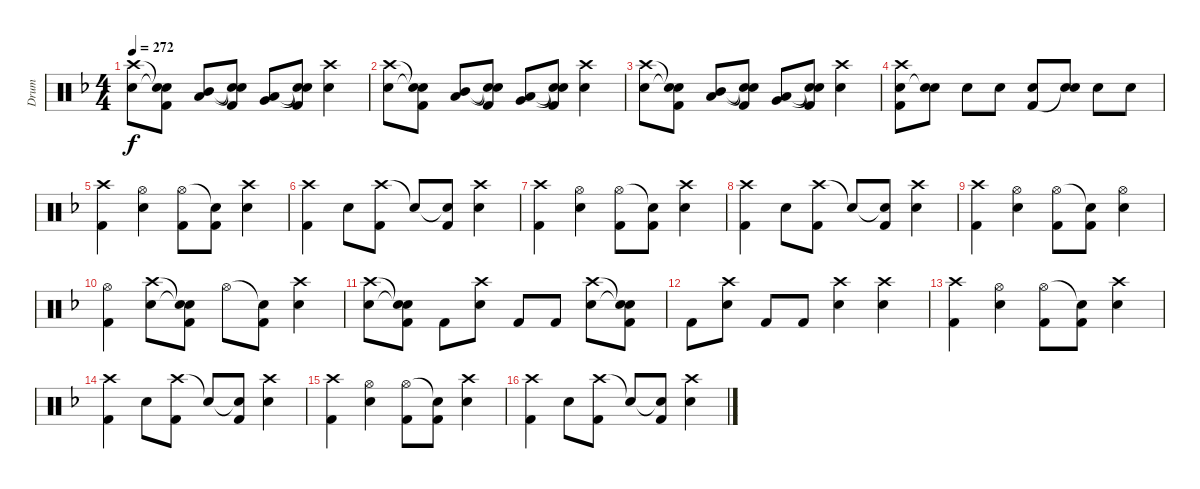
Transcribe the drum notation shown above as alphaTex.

\track ("Drum" "Drum") {instrument percussion}
\staff {score}
\articulation defaults
\ts (4 4)
\tempo 272
\clef neutral
\ks f
("Crash high (hit)" "Electric Snare (hit)").8{dy f} ("Snare (hit)"{t} "Snare (hit)"{t} "Kick (hit) 2").8 ("Mid Tom (hit)" "Low Tom (hit)").8 ("Snare (hit)"{t} "Snare (hit)"{t} "Kick (hit) 2").8 ("Low Tom (hit)" "Very Low Tom (hit)").8 ("Snare (hit)"{t} "Snare (hit)"{t} "Kick (hit) 2").8 ("Crash high (hit)" "Electric Snare (hit)").4 |
("Crash high (hit)" "Electric Snare (hit)").8 ("Snare (hit)"{t} "Snare (hit)"{t} "Kick (hit) 2").8 ("Mid Tom (hit)" "Low Tom (hit)").8 ("Snare (hit)"{t} "Snare (hit)"{t} "Kick (hit) 2").8 ("Low Tom (hit)" "Very Low Tom (hit)").8 ("Snare (hit)"{t} "Snare (hit)"{t} "Kick (hit) 2").8 ("Crash high (hit)" "Electric Snare (hit)").4 |
("Crash high (hit)" "Electric Snare (hit)").8 ("Snare (hit)"{t} "Snare (hit)"{t} "Kick (hit) 2").8 ("Mid Tom (hit)" "Low Tom (hit)").8 ("Snare (hit)"{t} "Snare (hit)"{t} "Kick (hit) 2").8 ("Low Tom (hit)" "Very Low Tom (hit)").8 ("Snare (hit)"{t} "Snare (hit)"{t} "Kick (hit) 2").8 ("Crash high (hit)" "Electric Snare (hit)").4 |
("Crash high (hit)" "Electric Snare (hit)" "Kick (hit) 2").8 ("Electric Snare (hit)" "Snare (hit)"{t}).8 "Electric Snare (hit)".8 "Electric Snare (hit)".8 ("Electric Snare (hit)" "Kick (hit) 2").8 ("Electric Snare (hit)" "Snare (hit)"{t}).8 "Electric Snare (hit)".8 "Electric Snare (hit)".8 |
("Crash high (hit)" "Kick (hit) 2").4 ("Hi-Hat (open)" "Electric Snare (hit)").4 ("Hi-Hat (open)" "Kick (hit) 2").8 ("Snare (hit)"{t} "Kick (hit) 2").8 ("Crash high (hit)" "Electric Snare (hit)").4 |
("Crash high (hit)" "Kick (hit) 2").4 "Electric Snare (hit)".8 ("Crash high (hit)" "Kick (hit) 2").8 "Snare (hit)"{t}.8 ("Snare (hit)"{t} "Kick (hit) 2").8 ("Crash high (hit)" "Electric Snare (hit)").4 |
("Crash high (hit)" "Kick (hit) 2").4 ("Hi-Hat (open)" "Electric Snare (hit)").4 ("Hi-Hat (open)" "Kick (hit) 2").8 ("Snare (hit)"{t} "Kick (hit) 2").8 ("Crash high (hit)" "Electric Snare (hit)").4 |
("Crash high (hit)" "Kick (hit) 2").4 "Electric Snare (hit)".8 ("Crash high (hit)" "Kick (hit) 2").8 "Snare (hit)"{t}.8 ("Snare (hit)"{t} "Kick (hit) 2").8 ("Crash high (hit)" "Electric Snare (hit)").4 |
("Crash high (hit)" "Kick (hit) 2").4 ("Hi-Hat (open)" "Electric Snare (hit)").4 ("Hi-Hat (open)" "Kick (hit) 2").8 ("Snare (hit)"{t} "Kick (hit) 2").8 ("Hi-Hat (open)" "Electric Snare (hit)").4 |
("Hi-Hat (open)" "Kick (hit) 2").4 ("Crash high (hit)" "Electric Snare (hit)").8 ("Snare (hit)"{t} "Snare (hit)"{t} "Kick (hit) 2").8 "Hi-Hat (open)".8 ("Snare (hit)"{t} "Kick (hit) 2").8 ("Crash high (hit)" "Electric Snare (hit)").4 |
("Crash high (hit)" "Electric Snare (hit)").8 ("Snare (hit)"{t} "Snare (hit)"{t} "Kick (hit) 2").8 "Kick (hit) 2".8 ("Crash high (hit)" "Electric Snare (hit)").8 "Kick (hit) 2".8 "Kick (hit) 2".8 ("Crash high (hit)" "Electric Snare (hit)").8 ("Snare (hit)"{t} "Snare (hit)"{t} "Kick (hit) 2").8 |
"Kick (hit) 2".8 ("Crash high (hit)" "Electric Snare (hit)").8 "Kick (hit) 2".8 "Kick (hit) 2".8 ("Crash high (hit)" "Electric Snare (hit)").4 ("Crash high (hit)" "Electric Snare (hit)").4 |
("Crash high (hit)" "Kick (hit) 2").4 ("Hi-Hat (open)" "Electric Snare (hit)").4 ("Hi-Hat (open)" "Kick (hit) 2").8 ("Snare (hit)"{t} "Kick (hit) 2").8 ("Crash high (hit)" "Electric Snare (hit)").4 |
("Crash high (hit)" "Kick (hit) 2").4 "Electric Snare (hit)".8 ("Crash high (hit)" "Kick (hit) 2").8 "Snare (hit)"{t}.8 ("Snare (hit)"{t} "Kick (hit) 2").8 ("Crash high (hit)" "Electric Snare (hit)").4 |
("Crash high (hit)" "Kick (hit) 2").4 ("Hi-Hat (open)" "Electric Snare (hit)").4 ("Hi-Hat (open)" "Kick (hit) 2").8 ("Snare (hit)"{t} "Kick (hit) 2").8 ("Crash high (hit)" "Electric Snare (hit)").4 |
("Crash high (hit)" "Kick (hit) 2").4 "Electric Snare (hit)".8 ("Crash high (hit)" "Kick (hit) 2").8 "Snare (hit)"{t}.8 ("Snare (hit)"{t} "Kick (hit) 2").8 ("Crash high (hit)" "Electric Snare (hit)").4
